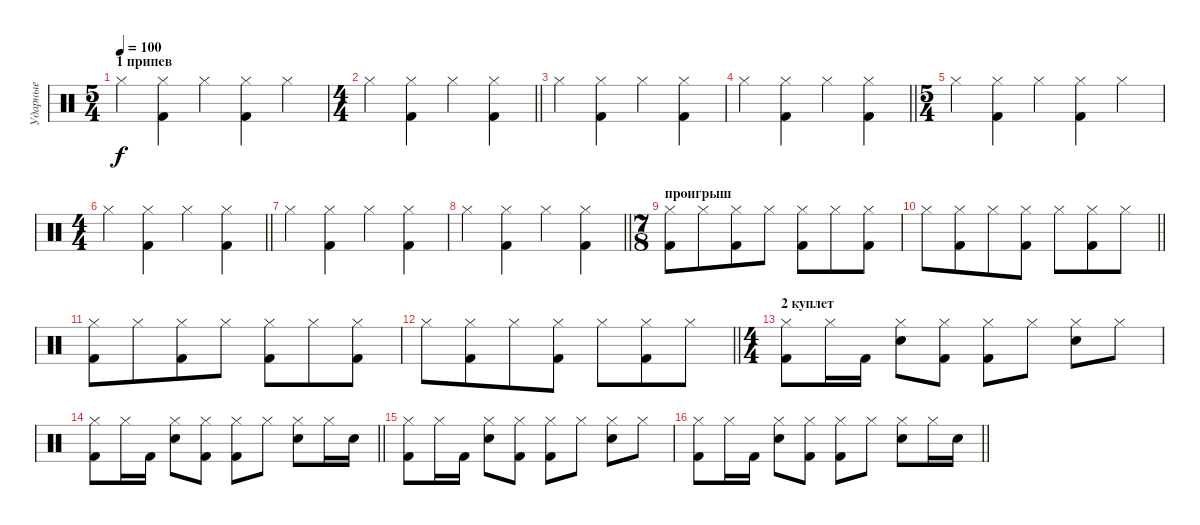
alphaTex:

\track ("Ударные" "Ударные") {instrument percussion}
\staff {score}
\articulation defaults
\ts (5 4)
\section ("" "1 припев ")
\tempo 100
\clef neutral
\ks c "Hi-Hat (closed)".4{dy f}
("Kick (hit) 2" "Hi-Hat (closed)").4 "Hi-Hat (closed)".4 ("Hi-Hat (closed)" "Kick (hit) 2").4 "Hi-Hat (closed)".4 |
\ts (4 4)
\barLineRight lightlight "Hi-Hat (closed)".4
("Kick (hit) 2" "Hi-Hat (closed)").4 "Hi-Hat (closed)".4 ("Kick (hit) 2" "Hi-Hat (closed)").4 |
"Hi-Hat (closed)".4 ("Kick (hit) 2" "Hi-Hat (closed)").4 "Hi-Hat (closed)".4 ("Hi-Hat (closed)" "Kick (hit) 2").4 |
\barLineRight lightlight "Hi-Hat (closed)".4
("Kick (hit) 2" "Hi-Hat (closed)").4 "Hi-Hat (closed)".4 ("Kick (hit) 2" "Hi-Hat (closed)").4 |
\ts (5 4)
"Hi-Hat (closed)".4 ("Kick (hit) 2" "Hi-Hat (closed)").4 "Hi-Hat (closed)".4 ("Hi-Hat (closed)" "Kick (hit) 2").4 "Hi-Hat (closed)".4 |
\ts (4 4)
\barLineRight lightlight "Hi-Hat (closed)".4
("Kick (hit) 2" "Hi-Hat (closed)").4 "Hi-Hat (closed)".4 ("Kick (hit) 2" "Hi-Hat (closed)").4 |
"Hi-Hat (closed)".4 ("Kick (hit) 2" "Hi-Hat (closed)").4 "Hi-Hat (closed)".4 ("Hi-Hat (closed)" "Kick (hit) 2").4 |
\barLineRight lightlight "Hi-Hat (closed)".4
("Kick (hit) 2" "Hi-Hat (closed)").4 "Hi-Hat (closed)".4 ("Kick (hit) 2" "Hi-Hat (closed)").4 |
\ts (7 8)
\section ("" "проигрыш")
("Hi-Hat (closed)" "Kick (hit) 2").8 "Hi-Hat (closed)".8 ("Hi-Hat (closed)" "Kick (hit) 2").8 "Hi-Hat (closed)".8 ("Hi-Hat (closed)" "Kick (hit) 2").8 "Hi-Hat (closed)".8 ("Hi-Hat (closed)" "Kick (hit) 2").8 |
\barLineRight lightlight "Hi-Hat (closed)".8
("Hi-Hat (closed)" "Kick (hit) 2").8 "Hi-Hat (closed)".8 ("Hi-Hat (closed)" "Kick (hit) 2").8 "Hi-Hat (closed)".8 ("Hi-Hat (closed)" "Kick (hit) 2").8 "Hi-Hat (closed)".8 |
("Hi-Hat (closed)" "Kick (hit) 2").8 "Hi-Hat (closed)".8 ("Hi-Hat (closed)" "Kick (hit) 2").8 "Hi-Hat (closed)".8 ("Hi-Hat (closed)" "Kick (hit) 2").8 "Hi-Hat (closed)".8 ("Hi-Hat (closed)" "Kick (hit) 2").8 |
\barLineRight lightlight "Hi-Hat (closed)".8
("Hi-Hat (closed)" "Kick (hit) 2").8 "Hi-Hat (closed)".8 ("Hi-Hat (closed)" "Kick (hit) 2").8 "Hi-Hat (closed)".8 ("Hi-Hat (closed)" "Kick (hit) 2").8 "Hi-Hat (closed)".8 |
\ts (4 4)
\section ("" "2 куплет ")
("Kick (hit) 2" "Hi-Hat (closed)").8 "Hi-Hat (closed)".16 "Kick (hit) 2".16 ("Snare (hit) 2" "Hi-Hat (closed)").8 ("Kick (hit) 2" "Hi-Hat (closed)").8 ("Kick (hit) 2" "Hi-Hat (closed)").8 "Hi-Hat (closed)".8 ("Snare (hit) 2" "Hi-Hat (closed)").8 "Hi-Hat (closed)".8 |
\barLineRight lightlight
("Kick (hit) 2" "Hi-Hat (closed)").8 "Hi-Hat (closed)".16 "Kick (hit) 2".16 ("Snare (hit) 2" "Hi-Hat (closed)").8 ("Kick (hit) 2" "Hi-Hat (closed)").8 ("Kick (hit) 2" "Hi-Hat (closed)").8 "Hi-Hat (closed)".8 ("Snare (hit) 2" "Hi-Hat (closed)").8 "Hi-Hat (closed)".16 "Snare (hit) 2".16 |
("Kick (hit) 2" "Hi-Hat (closed)").8 "Hi-Hat (closed)".16 "Kick (hit) 2".16 ("Snare (hit) 2" "Hi-Hat (closed)").8 ("Kick (hit) 2" "Hi-Hat (closed)").8 ("Kick (hit) 2" "Hi-Hat (closed)").8 "Hi-Hat (closed)".8 ("Snare (hit) 2" "Hi-Hat (closed)").8 "Hi-Hat (closed)".8 |
\barLineRight lightlight
("Kick (hit) 2" "Hi-Hat (closed)").8 "Hi-Hat (closed)".16 "Kick (hit) 2".16 ("Snare (hit) 2" "Hi-Hat (closed)").8 ("Kick (hit) 2" "Hi-Hat (closed)").8 ("Kick (hit) 2" "Hi-Hat (closed)").8 "Hi-Hat (closed)".8 ("Snare (hit) 2" "Hi-Hat (closed)").8 "Hi-Hat (closed)".16 "Snare (hit) 2".16
